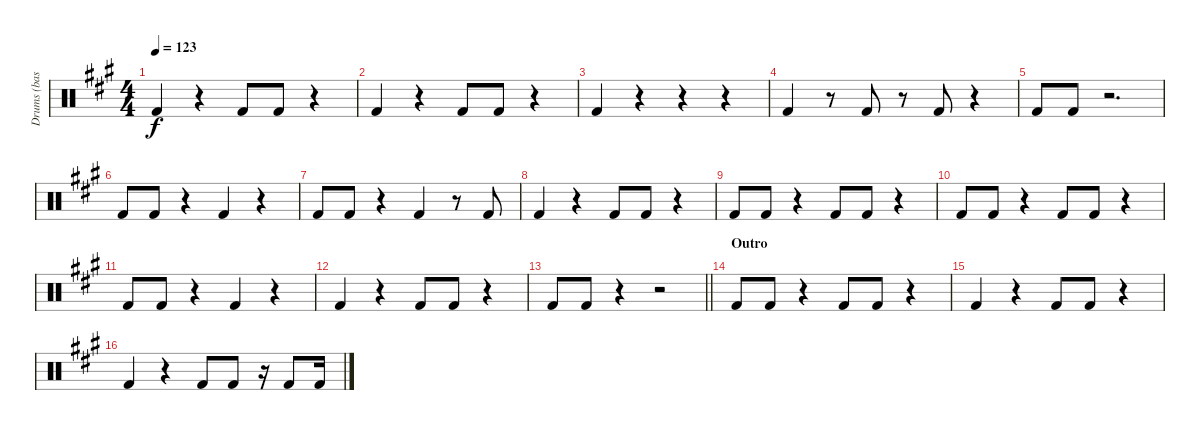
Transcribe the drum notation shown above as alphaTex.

\track ("Drums (bass Drums)" "Drums (bas") {instrument percussion}
\staff {score}
\articulation defaults
\ts (4 4)
\tempo 123
\clef neutral
\ks a "Kick (hit) 2".4{dy f}
r.4 "Kick (hit) 2".8 "Kick (hit) 2".8 r.4 |
"Kick (hit) 2".4 r.4 "Kick (hit) 2".8 "Kick (hit) 2".8 r.4 |
"Kick (hit) 2".4 r.4 r.4 r.4 |
"Kick (hit) 2".4 r.8 "Kick (hit) 2".8 r.8 "Kick (hit) 2".8 r.4 |
"Kick (hit) 2".8 "Kick (hit) 2".8 r.2{d} |
"Kick (hit) 2".8 "Kick (hit) 2".8 r.4 "Kick (hit) 2".4 r.4 |
"Kick (hit) 2".8 "Kick (hit) 2".8 r.4 "Kick (hit) 2".4 r.8 "Kick (hit) 2".8 |
"Kick (hit) 2".4 r.4 "Kick (hit) 2".8 "Kick (hit) 2".8 r.4 |
"Kick (hit) 2".8 "Kick (hit) 2".8 r.4 "Kick (hit) 2".8 "Kick (hit) 2".8 r.4 |
"Kick (hit) 2".8 "Kick (hit) 2".8 r.4 "Kick (hit) 2".8 "Kick (hit) 2".8 r.4 |
"Kick (hit) 2".8 "Kick (hit) 2".8 r.4 "Kick (hit) 2".4 r.4 |
"Kick (hit) 2".4 r.4 "Kick (hit) 2".8 "Kick (hit) 2".8 r.4 |
\barLineRight lightlight "Kick (hit) 2".8 "Kick (hit) 2".8
r.4 r.2 |
\section ("" "Outro")
"Kick (hit) 2".8 "Kick (hit) 2".8 r.4 "Kick (hit) 2".8 "Kick (hit) 2".8 r.4 |
"Kick (hit) 2".4 r.4 "Kick (hit) 2".8 "Kick (hit) 2".8 r.4 |
"Kick (hit) 2".4 r.4 "Kick (hit) 2".8 "Kick (hit) 2".8 r.16 "Kick (hit) 2".8 "Kick (hit) 2".16
